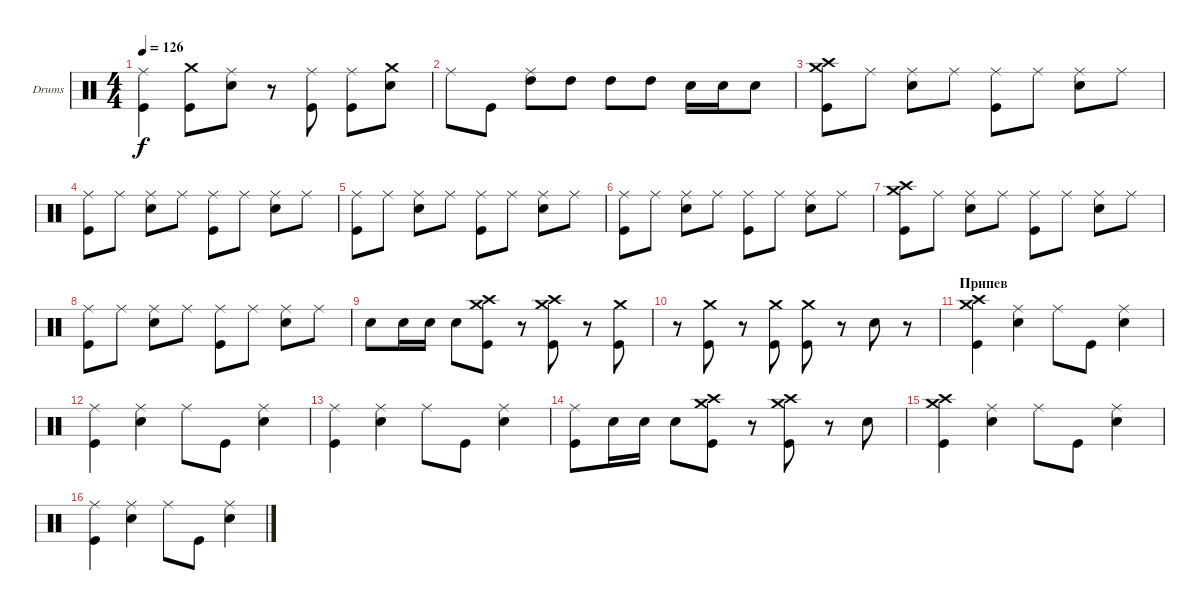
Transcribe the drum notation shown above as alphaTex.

\bracketExtendMode groupsimilarinstruments
\firstSystemTrackNameOrientation horizontal
\otherSystemsTrackNameOrientation horizontal
\track ("Александр Манякин" "Drums") {instrument percussion}
\staff {score}
\articulation defaults
\ts (4 4)
\tempo 126
\clef neutral
\ks c
("Kick (hit)" "Ride (middle)").4{dy f} ("Kick (hit)" "Crash medium (hit)").8 ("Snare (hit) 2" "Ride (middle)").8 r.8 ("Kick (hit)" "Ride (middle)").8 ("Kick (hit)" "Ride (middle)").8 ("Snare (hit) 2" "Crash medium (hit)").8 |
"Ride (middle)".8 "Kick (hit)".8 ("High Tom (hit)" "Ride (middle)").8 "High Tom (hit)".8 "High Tom (hit)".8 "High Tom (hit)".8 "Snare (hit) 2".16 "Snare (hit) 2".16 "Snare (hit) 2".8 |
("Kick (hit)" "Crash high (hit)" "Crash medium (hit)").8 "Ride (middle)".8 ("Snare (hit) 2" "Ride (middle)").8 "Ride (middle)".8 ("Kick (hit)" "Ride (middle)").8 "Ride (middle)".8 ("Snare (hit) 2" "Ride (middle)").8 "Ride (middle)".8 |
("Kick (hit)" "Ride (middle)").8 "Ride (middle)".8 ("Snare (hit) 2" "Ride (middle)").8 "Ride (middle)".8 ("Kick (hit)" "Ride (middle)").8 "Ride (middle)".8 ("Snare (hit) 2" "Ride (middle)").8 "Ride (middle)".8 |
("Kick (hit)" "Ride (middle)").8 "Ride (middle)".8 ("Snare (hit) 2" "Ride (middle)").8 "Ride (middle)".8 ("Kick (hit)" "Ride (middle)").8 "Ride (middle)".8 ("Snare (hit) 2" "Ride (middle)").8 "Ride (middle)".8 |
("Kick (hit)" "Ride (middle)").8 "Ride (middle)".8 ("Snare (hit) 2" "Ride (middle)").8 "Ride (middle)".8 ("Kick (hit)" "Ride (middle)").8 "Ride (middle)".8 ("Snare (hit) 2" "Ride (middle)").8 "Ride (middle)".8 |
("Kick (hit)" "Crash high (hit)" "Crash medium (hit)").8 "Ride (middle)".8 ("Snare (hit) 2" "Ride (middle)").8 "Ride (middle)".8 ("Kick (hit)" "Ride (middle)").8 "Ride (middle)".8 ("Snare (hit) 2" "Ride (middle)").8 "Ride (middle)".8 |
("Kick (hit)" "Ride (middle)").8 "Ride (middle)".8 ("Snare (hit) 2" "Ride (middle)").8 "Ride (middle)".8 ("Kick (hit)" "Ride (middle)").8 "Ride (middle)".8 ("Snare (hit) 2" "Ride (middle)").8 "Ride (middle)".8 |
"Snare (hit) 2".8 "Snare (hit) 2".16 "Snare (hit) 2".16 "Snare (hit) 2".8 ("Kick (hit)" "Crash high (hit)" "Crash medium (hit)").8 r.8 ("Kick (hit)" "Crash medium (hit)" "Crash high (hit)").8 r.8 ("Kick (hit)" "Crash medium (hit)").8 |
r.8 ("Kick (hit)" "Crash medium (hit)").8 r.8 ("Kick (hit)" "Crash medium (hit)").8 ("Kick (hit)" "Crash medium (hit)").8 r.8 "Snare (hit) 2".8 r.8 |
\section ("" "Припев")
("Kick (hit)" "Crash medium (hit)" "Crash high (hit)").4 ("Snare (hit) 2" "Ride (middle)").4 "Ride (middle)".8 "Kick (hit)".8 ("Snare (hit) 2" "Ride (middle)").4 |
("Kick (hit)" "Ride (middle)").4 ("Snare (hit) 2" "Ride (middle)").4 "Ride (middle)".8 "Kick (hit)".8 ("Snare (hit) 2" "Ride (middle)").4 |
("Kick (hit)" "Ride (middle)").4 ("Snare (hit) 2" "Ride (middle)").4 "Ride (middle)".8 "Kick (hit)".8 ("Snare (hit) 2" "Ride (middle)").4 |
("Kick (hit)" "Ride (middle)").8 "Snare (hit) 2".16 "Snare (hit) 2".16 "Snare (hit) 2".8 ("Kick (hit)" "Crash medium (hit)" "Crash high (hit)").8 r.8 ("Kick (hit)" "Crash medium (hit)" "Crash high (hit)").8 r.8 "Snare (hit) 2".8 |
("Kick (hit)" "Crash medium (hit)" "Crash high (hit)").4 ("Snare (hit) 2" "Ride (middle)").4 "Ride (middle)".8 "Kick (hit)".8 ("Snare (hit) 2" "Ride (middle)").4 |
("Kick (hit)" "Ride (middle)").4 ("Snare (hit) 2" "Ride (middle)").4 "Ride (middle)".8 "Kick (hit)".8 ("Snare (hit) 2" "Ride (middle)").4
